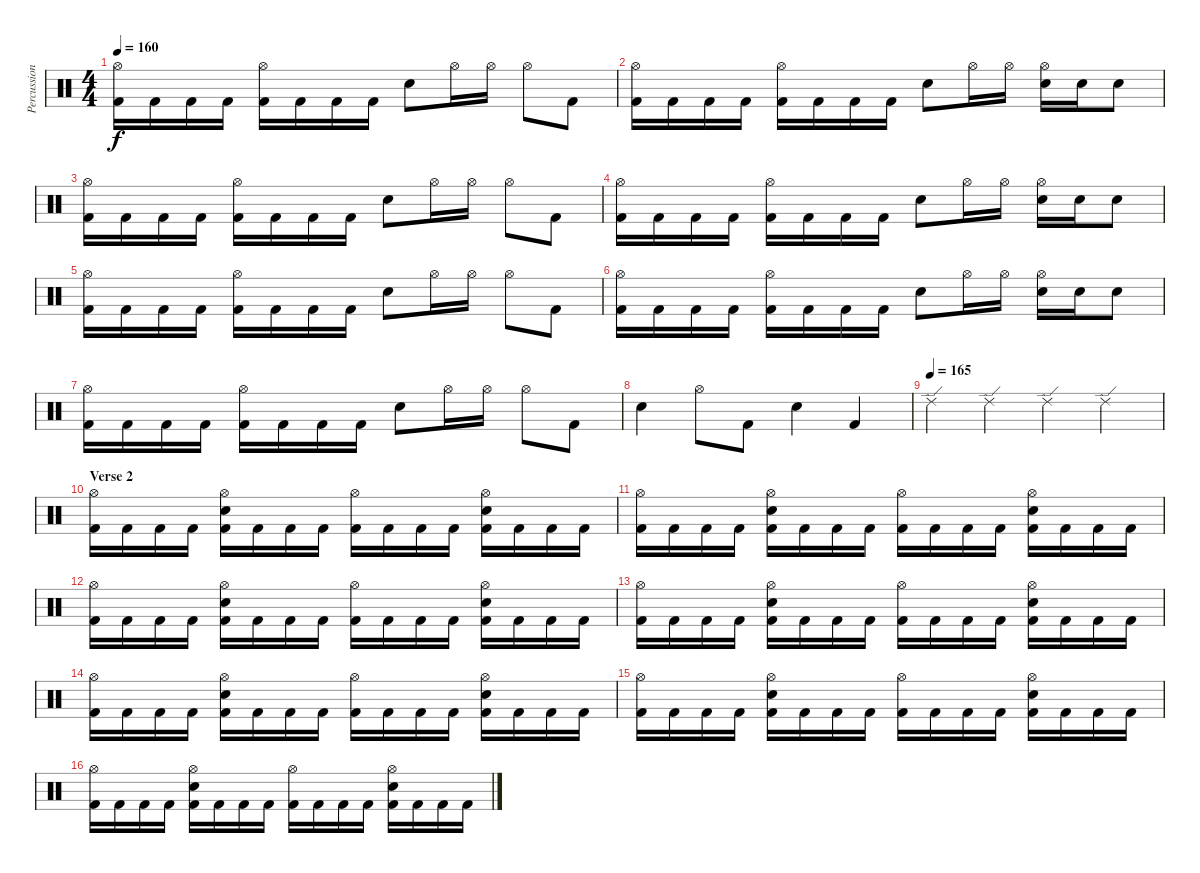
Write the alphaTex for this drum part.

\track ("Percussions" "Percussion") {instrument percussion}
\staff {score}
\articulation defaults
\ts (4 4)
\tempo 160
\clef neutral
\ks c
("Hi-Hat (open)" "Kick (hit) 2").16{dy f} "Kick (hit) 2".16 "Kick (hit) 2".16 "Kick (hit) 2".16 ("Hi-Hat (open)" "Kick (hit) 2").16 "Kick (hit) 2".16 "Kick (hit) 2".16 "Kick (hit) 2".16 "Electric Snare (hit)".8 "Hi-Hat (open)".16 "Hi-Hat (open)".16 "Hi-Hat (open)".8 "Kick (hit) 2".8 |
("Hi-Hat (open)" "Kick (hit) 2").16 "Kick (hit) 2".16 "Kick (hit) 2".16 "Kick (hit) 2".16 ("Hi-Hat (open)" "Kick (hit) 2").16 "Kick (hit) 2".16 "Kick (hit) 2".16 "Kick (hit) 2".16 "Electric Snare (hit)".8 "Hi-Hat (open)".16 "Hi-Hat (open)".16 ("Hi-Hat (open)" "Electric Snare (hit)").16 "Electric Snare (hit)".16 "Electric Snare (hit)".8 |
("Hi-Hat (open)" "Kick (hit) 2").16 "Kick (hit) 2".16 "Kick (hit) 2".16 "Kick (hit) 2".16 ("Hi-Hat (open)" "Kick (hit) 2").16 "Kick (hit) 2".16 "Kick (hit) 2".16 "Kick (hit) 2".16 "Electric Snare (hit)".8 "Hi-Hat (open)".16 "Hi-Hat (open)".16 "Hi-Hat (open)".8 "Kick (hit) 2".8 |
("Hi-Hat (open)" "Kick (hit) 2").16 "Kick (hit) 2".16 "Kick (hit) 2".16 "Kick (hit) 2".16 ("Hi-Hat (open)" "Kick (hit) 2").16 "Kick (hit) 2".16 "Kick (hit) 2".16 "Kick (hit) 2".16 "Electric Snare (hit)".8 "Hi-Hat (open)".16 "Hi-Hat (open)".16 ("Hi-Hat (open)" "Electric Snare (hit)").16 "Electric Snare (hit)".16 "Electric Snare (hit)".8 |
("Hi-Hat (open)" "Kick (hit) 2").16 "Kick (hit) 2".16 "Kick (hit) 2".16 "Kick (hit) 2".16 ("Hi-Hat (open)" "Kick (hit) 2").16 "Kick (hit) 2".16 "Kick (hit) 2".16 "Kick (hit) 2".16 "Electric Snare (hit)".8 "Hi-Hat (open)".16 "Hi-Hat (open)".16 "Hi-Hat (open)".8 "Kick (hit) 2".8 |
("Hi-Hat (open)" "Kick (hit) 2").16 "Kick (hit) 2".16 "Kick (hit) 2".16 "Kick (hit) 2".16 ("Hi-Hat (open)" "Kick (hit) 2").16 "Kick (hit) 2".16 "Kick (hit) 2".16 "Kick (hit) 2".16 "Electric Snare (hit)".8 "Hi-Hat (open)".16 "Hi-Hat (open)".16 ("Hi-Hat (open)" "Electric Snare (hit)").16 "Electric Snare (hit)".16 "Electric Snare (hit)".8 |
("Hi-Hat (open)" "Kick (hit) 2").16 "Kick (hit) 2".16 "Kick (hit) 2".16 "Kick (hit) 2".16 ("Hi-Hat (open)" "Kick (hit) 2").16 "Kick (hit) 2".16 "Kick (hit) 2".16 "Kick (hit) 2".16 "Electric Snare (hit)".8 "Hi-Hat (open)".16 "Hi-Hat (open)".16 "Hi-Hat (open)".8 "Kick (hit) 2".8 |
"Electric Snare (hit)".4 "Hi-Hat (open)".8 "Kick (hit) 2".8 "Electric Snare (hit)".4 "Kick (hit) 2".4 |
\tempo (165)
"Ride (edge) 2".4 "Ride (edge) 2".4 "Ride (edge) 2".4 "Ride (edge) 2".4 |
\section ("" "Verse 2")
("Hi-Hat (open)" "Kick (hit) 2").16 "Kick (hit) 2".16 "Kick (hit) 2".16 "Kick (hit) 2".16 ("Hi-Hat (open)" "Electric Snare (hit)" "Kick (hit) 2").16 "Kick (hit) 2".16 "Kick (hit) 2".16 "Kick (hit) 2".16 ("Hi-Hat (open)" "Kick (hit) 2").16 "Kick (hit) 2".16 "Kick (hit) 2".16 "Kick (hit) 2".16 ("Hi-Hat (open)" "Electric Snare (hit)" "Kick (hit) 2").16 "Kick (hit) 2".16 "Kick (hit) 2".16 "Kick (hit) 2".16 |
("Hi-Hat (open)" "Kick (hit) 2").16 "Kick (hit) 2".16 "Kick (hit) 2".16 "Kick (hit) 2".16 ("Hi-Hat (open)" "Electric Snare (hit)" "Kick (hit) 2").16 "Kick (hit) 2".16 "Kick (hit) 2".16 "Kick (hit) 2".16 ("Hi-Hat (open)" "Kick (hit) 2").16 "Kick (hit) 2".16 "Kick (hit) 2".16 "Kick (hit) 2".16 ("Hi-Hat (open)" "Electric Snare (hit)" "Kick (hit) 2").16 "Kick (hit) 2".16 "Kick (hit) 2".16 "Kick (hit) 2".16 |
("Hi-Hat (open)" "Kick (hit) 2").16 "Kick (hit) 2".16 "Kick (hit) 2".16 "Kick (hit) 2".16 ("Hi-Hat (open)" "Electric Snare (hit)" "Kick (hit) 2").16 "Kick (hit) 2".16 "Kick (hit) 2".16 "Kick (hit) 2".16 ("Hi-Hat (open)" "Kick (hit) 2").16 "Kick (hit) 2".16 "Kick (hit) 2".16 "Kick (hit) 2".16 ("Hi-Hat (open)" "Electric Snare (hit)" "Kick (hit) 2").16 "Kick (hit) 2".16 "Kick (hit) 2".16 "Kick (hit) 2".16 |
("Hi-Hat (open)" "Kick (hit) 2").16 "Kick (hit) 2".16 "Kick (hit) 2".16 "Kick (hit) 2".16 ("Hi-Hat (open)" "Electric Snare (hit)" "Kick (hit) 2").16 "Kick (hit) 2".16 "Kick (hit) 2".16 "Kick (hit) 2".16 ("Hi-Hat (open)" "Kick (hit) 2").16 "Kick (hit) 2".16 "Kick (hit) 2".16 "Kick (hit) 2".16 ("Hi-Hat (open)" "Electric Snare (hit)" "Kick (hit) 2").16 "Kick (hit) 2".16 "Kick (hit) 2".16 "Kick (hit) 2".16 |
("Hi-Hat (open)" "Kick (hit) 2").16 "Kick (hit) 2".16 "Kick (hit) 2".16 "Kick (hit) 2".16 ("Hi-Hat (open)" "Electric Snare (hit)" "Kick (hit) 2").16 "Kick (hit) 2".16 "Kick (hit) 2".16 "Kick (hit) 2".16 ("Hi-Hat (open)" "Kick (hit) 2").16 "Kick (hit) 2".16 "Kick (hit) 2".16 "Kick (hit) 2".16 ("Hi-Hat (open)" "Electric Snare (hit)" "Kick (hit) 2").16 "Kick (hit) 2".16 "Kick (hit) 2".16 "Kick (hit) 2".16 |
("Hi-Hat (open)" "Kick (hit) 2").16 "Kick (hit) 2".16 "Kick (hit) 2".16 "Kick (hit) 2".16 ("Hi-Hat (open)" "Electric Snare (hit)" "Kick (hit) 2").16 "Kick (hit) 2".16 "Kick (hit) 2".16 "Kick (hit) 2".16 ("Hi-Hat (open)" "Kick (hit) 2").16 "Kick (hit) 2".16 "Kick (hit) 2".16 "Kick (hit) 2".16 ("Hi-Hat (open)" "Electric Snare (hit)" "Kick (hit) 2").16 "Kick (hit) 2".16 "Kick (hit) 2".16 "Kick (hit) 2".16 |
("Hi-Hat (open)" "Kick (hit) 2").16 "Kick (hit) 2".16 "Kick (hit) 2".16 "Kick (hit) 2".16 ("Hi-Hat (open)" "Electric Snare (hit)" "Kick (hit) 2").16 "Kick (hit) 2".16 "Kick (hit) 2".16 "Kick (hit) 2".16 ("Hi-Hat (open)" "Kick (hit) 2").16 "Kick (hit) 2".16 "Kick (hit) 2".16 "Kick (hit) 2".16 ("Hi-Hat (open)" "Electric Snare (hit)" "Kick (hit) 2").16 "Kick (hit) 2".16 "Kick (hit) 2".16 "Kick (hit) 2".16
